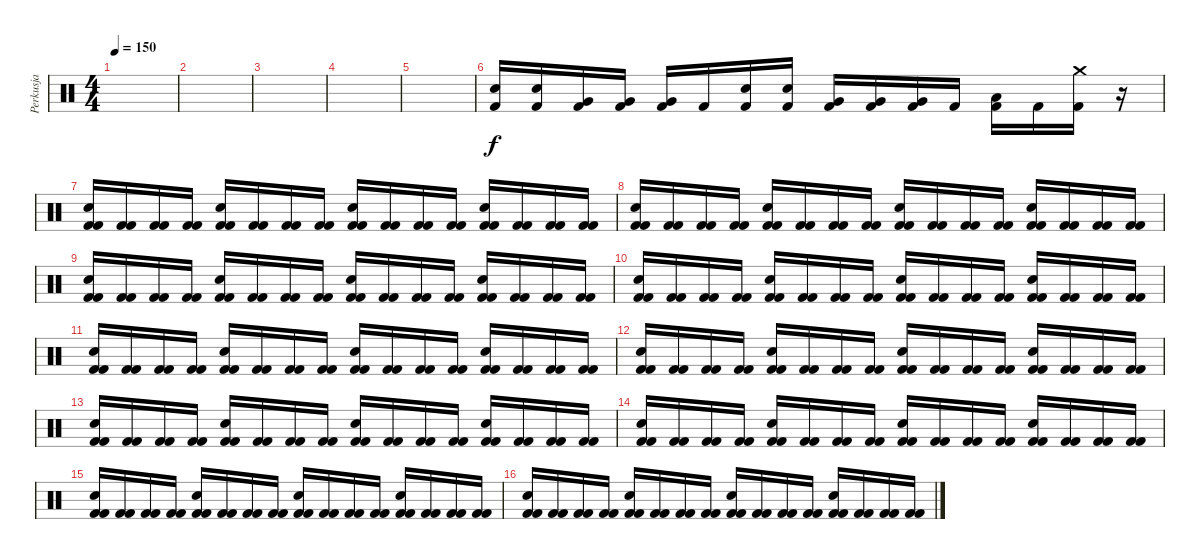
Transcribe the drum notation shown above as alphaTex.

\track ("Perkusja" "Perkusja") {instrument percussion}
\staff {score}
\articulation defaults
\ts (4 4)
\tempo 150
\clef neutral
\ks c
|
|
|
|
|
("Electric Snare (hit)" "Kick (hit) 2").16 ("Snare (hit) 2" "Kick (hit) 2").16 ("Very Low Tom (hit)" "Kick (hit) 2").16 ("Very Low Tom (hit)" "Kick (hit) 2").16 ("Very Low Tom (hit)" "Kick (hit) 2").16 "Kick (hit) 2".16 ("Electric Snare (hit)" "Kick (hit) 2").16 ("Snare (hit) 2" "Kick (hit) 2").16 ("Very Low Tom (hit)" "Kick (hit) 2").16 ("Very Low Tom (hit)" "Kick (hit) 2").16 ("Very Low Tom (hit)" "Kick (hit) 2").16 "Kick (hit) 2".16 ("Low Tom (hit)" "Kick (hit) 2").16 "Kick (hit) 2".16 ("Crash medium (hit)" "Kick (hit) 2").16 r.16 |
("Snare (hit) 2" "Kick (hit) 2" "Kick (hit) 2").16 ("Kick (hit) 2" "Kick (hit) 2").16 ("Kick (hit) 2" "Kick (hit) 2").16 ("Kick (hit) 2" "Kick (hit) 2").16 ("Electric Snare (hit)" "Kick (hit) 2" "Kick (hit) 2").16 ("Kick (hit) 2" "Kick (hit) 2").16 ("Kick (hit) 2" "Kick (hit) 2").16 ("Kick (hit) 2" "Kick (hit) 2").16 ("Snare (hit) 2" "Kick (hit) 2" "Kick (hit) 2").16 ("Kick (hit) 2" "Kick (hit) 2").16 ("Kick (hit) 2" "Kick (hit) 2").16 ("Kick (hit) 2" "Kick (hit) 2").16 ("Electric Snare (hit)" "Kick (hit) 2" "Kick (hit) 2").16 ("Kick (hit) 2" "Kick (hit) 2").16 ("Kick (hit) 2" "Kick (hit) 2").16 ("Kick (hit) 2" "Kick (hit) 2").16 |
("Snare (hit) 2" "Kick (hit) 2" "Kick (hit) 2").16 ("Kick (hit) 2" "Kick (hit) 2").16 ("Kick (hit) 2" "Kick (hit) 2").16 ("Kick (hit) 2" "Kick (hit) 2").16 ("Electric Snare (hit)" "Kick (hit) 2" "Kick (hit) 2").16 ("Kick (hit) 2" "Kick (hit) 2").16 ("Kick (hit) 2" "Kick (hit) 2").16 ("Kick (hit) 2" "Kick (hit) 2").16 ("Snare (hit) 2" "Kick (hit) 2" "Kick (hit) 2").16 ("Kick (hit) 2" "Kick (hit) 2").16 ("Kick (hit) 2" "Kick (hit) 2").16 ("Kick (hit) 2" "Kick (hit) 2").16 ("Electric Snare (hit)" "Kick (hit) 2" "Kick (hit) 2").16 ("Kick (hit) 2" "Kick (hit) 2").16 ("Kick (hit) 2" "Kick (hit) 2").16 ("Kick (hit) 2" "Kick (hit) 2").16 |
("Snare (hit) 2" "Kick (hit) 2" "Kick (hit) 2").16 ("Kick (hit) 2" "Kick (hit) 2").16 ("Kick (hit) 2" "Kick (hit) 2").16 ("Kick (hit) 2" "Kick (hit) 2").16 ("Electric Snare (hit)" "Kick (hit) 2" "Kick (hit) 2").16 ("Kick (hit) 2" "Kick (hit) 2").16 ("Kick (hit) 2" "Kick (hit) 2").16 ("Kick (hit) 2" "Kick (hit) 2").16 ("Snare (hit) 2" "Kick (hit) 2" "Kick (hit) 2").16 ("Kick (hit) 2" "Kick (hit) 2").16 ("Kick (hit) 2" "Kick (hit) 2").16 ("Kick (hit) 2" "Kick (hit) 2").16 ("Electric Snare (hit)" "Kick (hit) 2" "Kick (hit) 2").16 ("Kick (hit) 2" "Kick (hit) 2").16 ("Kick (hit) 2" "Kick (hit) 2").16 ("Kick (hit) 2" "Kick (hit) 2").16 |
("Snare (hit) 2" "Kick (hit) 2" "Kick (hit) 2").16 ("Kick (hit) 2" "Kick (hit) 2").16 ("Kick (hit) 2" "Kick (hit) 2").16 ("Kick (hit) 2" "Kick (hit) 2").16 ("Electric Snare (hit)" "Kick (hit) 2" "Kick (hit) 2").16 ("Kick (hit) 2" "Kick (hit) 2").16 ("Kick (hit) 2" "Kick (hit) 2").16 ("Kick (hit) 2" "Kick (hit) 2").16 ("Snare (hit) 2" "Kick (hit) 2" "Kick (hit) 2").16 ("Kick (hit) 2" "Kick (hit) 2").16 ("Kick (hit) 2" "Kick (hit) 2").16 ("Kick (hit) 2" "Kick (hit) 2").16 ("Electric Snare (hit)" "Kick (hit) 2" "Kick (hit) 2").16 ("Kick (hit) 2" "Kick (hit) 2").16 ("Kick (hit) 2" "Kick (hit) 2").16 ("Kick (hit) 2" "Kick (hit) 2").16 |
("Snare (hit) 2" "Kick (hit) 2" "Kick (hit) 2").16 ("Kick (hit) 2" "Kick (hit) 2").16 ("Kick (hit) 2" "Kick (hit) 2").16 ("Kick (hit) 2" "Kick (hit) 2").16 ("Electric Snare (hit)" "Kick (hit) 2" "Kick (hit) 2").16 ("Kick (hit) 2" "Kick (hit) 2").16 ("Kick (hit) 2" "Kick (hit) 2").16 ("Kick (hit) 2" "Kick (hit) 2").16 ("Snare (hit) 2" "Kick (hit) 2" "Kick (hit) 2").16 ("Kick (hit) 2" "Kick (hit) 2").16 ("Kick (hit) 2" "Kick (hit) 2").16 ("Kick (hit) 2" "Kick (hit) 2").16 ("Electric Snare (hit)" "Kick (hit) 2" "Kick (hit) 2").16 ("Kick (hit) 2" "Kick (hit) 2").16 ("Kick (hit) 2" "Kick (hit) 2").16 ("Kick (hit) 2" "Kick (hit) 2").16 |
("Snare (hit) 2" "Kick (hit) 2" "Kick (hit) 2").16 ("Kick (hit) 2" "Kick (hit) 2").16 ("Kick (hit) 2" "Kick (hit) 2").16 ("Kick (hit) 2" "Kick (hit) 2").16 ("Electric Snare (hit)" "Kick (hit) 2" "Kick (hit) 2").16 ("Kick (hit) 2" "Kick (hit) 2").16 ("Kick (hit) 2" "Kick (hit) 2").16 ("Kick (hit) 2" "Kick (hit) 2").16 ("Snare (hit) 2" "Kick (hit) 2" "Kick (hit) 2").16 ("Kick (hit) 2" "Kick (hit) 2").16 ("Kick (hit) 2" "Kick (hit) 2").16 ("Kick (hit) 2" "Kick (hit) 2").16 ("Electric Snare (hit)" "Kick (hit) 2" "Kick (hit) 2").16 ("Kick (hit) 2" "Kick (hit) 2").16 ("Kick (hit) 2" "Kick (hit) 2").16 ("Kick (hit) 2" "Kick (hit) 2").16 |
("Snare (hit) 2" "Kick (hit) 2" "Kick (hit) 2").16 ("Kick (hit) 2" "Kick (hit) 2").16 ("Kick (hit) 2" "Kick (hit) 2").16 ("Kick (hit) 2" "Kick (hit) 2").16 ("Electric Snare (hit)" "Kick (hit) 2" "Kick (hit) 2").16 ("Kick (hit) 2" "Kick (hit) 2").16 ("Kick (hit) 2" "Kick (hit) 2").16 ("Kick (hit) 2" "Kick (hit) 2").16 ("Snare (hit) 2" "Kick (hit) 2" "Kick (hit) 2").16 ("Kick (hit) 2" "Kick (hit) 2").16 ("Kick (hit) 2" "Kick (hit) 2").16 ("Kick (hit) 2" "Kick (hit) 2").16 ("Electric Snare (hit)" "Kick (hit) 2" "Kick (hit) 2").16 ("Kick (hit) 2" "Kick (hit) 2").16 ("Kick (hit) 2" "Kick (hit) 2").16 ("Kick (hit) 2" "Kick (hit) 2").16 |
("Snare (hit) 2" "Kick (hit) 2" "Kick (hit) 2").16 ("Kick (hit) 2" "Kick (hit) 2").16 ("Kick (hit) 2" "Kick (hit) 2").16 ("Kick (hit) 2" "Kick (hit) 2").16 ("Electric Snare (hit)" "Kick (hit) 2" "Kick (hit) 2").16 ("Kick (hit) 2" "Kick (hit) 2").16 ("Kick (hit) 2" "Kick (hit) 2").16 ("Kick (hit) 2" "Kick (hit) 2").16 ("Snare (hit) 2" "Kick (hit) 2" "Kick (hit) 2").16 ("Kick (hit) 2" "Kick (hit) 2").16 ("Kick (hit) 2" "Kick (hit) 2").16 ("Kick (hit) 2" "Kick (hit) 2").16 ("Electric Snare (hit)" "Kick (hit) 2" "Kick (hit) 2").16 ("Kick (hit) 2" "Kick (hit) 2").16 ("Kick (hit) 2" "Kick (hit) 2").16 ("Kick (hit) 2" "Kick (hit) 2").16 |
("Snare (hit) 2" "Kick (hit) 2" "Kick (hit) 2").16 ("Kick (hit) 2" "Kick (hit) 2").16 ("Kick (hit) 2" "Kick (hit) 2").16 ("Kick (hit) 2" "Kick (hit) 2").16 ("Electric Snare (hit)" "Kick (hit) 2" "Kick (hit) 2").16 ("Kick (hit) 2" "Kick (hit) 2").16 ("Kick (hit) 2" "Kick (hit) 2").16 ("Kick (hit) 2" "Kick (hit) 2").16 ("Snare (hit) 2" "Kick (hit) 2" "Kick (hit) 2").16 ("Kick (hit) 2" "Kick (hit) 2").16 ("Kick (hit) 2" "Kick (hit) 2").16 ("Kick (hit) 2" "Kick (hit) 2").16 ("Electric Snare (hit)" "Kick (hit) 2" "Kick (hit) 2").16 ("Kick (hit) 2" "Kick (hit) 2").16 ("Kick (hit) 2" "Kick (hit) 2").16 ("Kick (hit) 2" "Kick (hit) 2").16 |
("Snare (hit) 2" "Kick (hit) 2" "Kick (hit) 2").16 ("Kick (hit) 2" "Kick (hit) 2").16 ("Kick (hit) 2" "Kick (hit) 2").16 ("Kick (hit) 2" "Kick (hit) 2").16 ("Electric Snare (hit)" "Kick (hit) 2" "Kick (hit) 2").16 ("Kick (hit) 2" "Kick (hit) 2").16 ("Kick (hit) 2" "Kick (hit) 2").16 ("Kick (hit) 2" "Kick (hit) 2").16 ("Snare (hit) 2" "Kick (hit) 2" "Kick (hit) 2").16 ("Kick (hit) 2" "Kick (hit) 2").16 ("Kick (hit) 2" "Kick (hit) 2").16 ("Kick (hit) 2" "Kick (hit) 2").16 ("Electric Snare (hit)" "Kick (hit) 2" "Kick (hit) 2").16 ("Kick (hit) 2" "Kick (hit) 2").16 ("Kick (hit) 2" "Kick (hit) 2").16 ("Kick (hit) 2" "Kick (hit) 2").16
